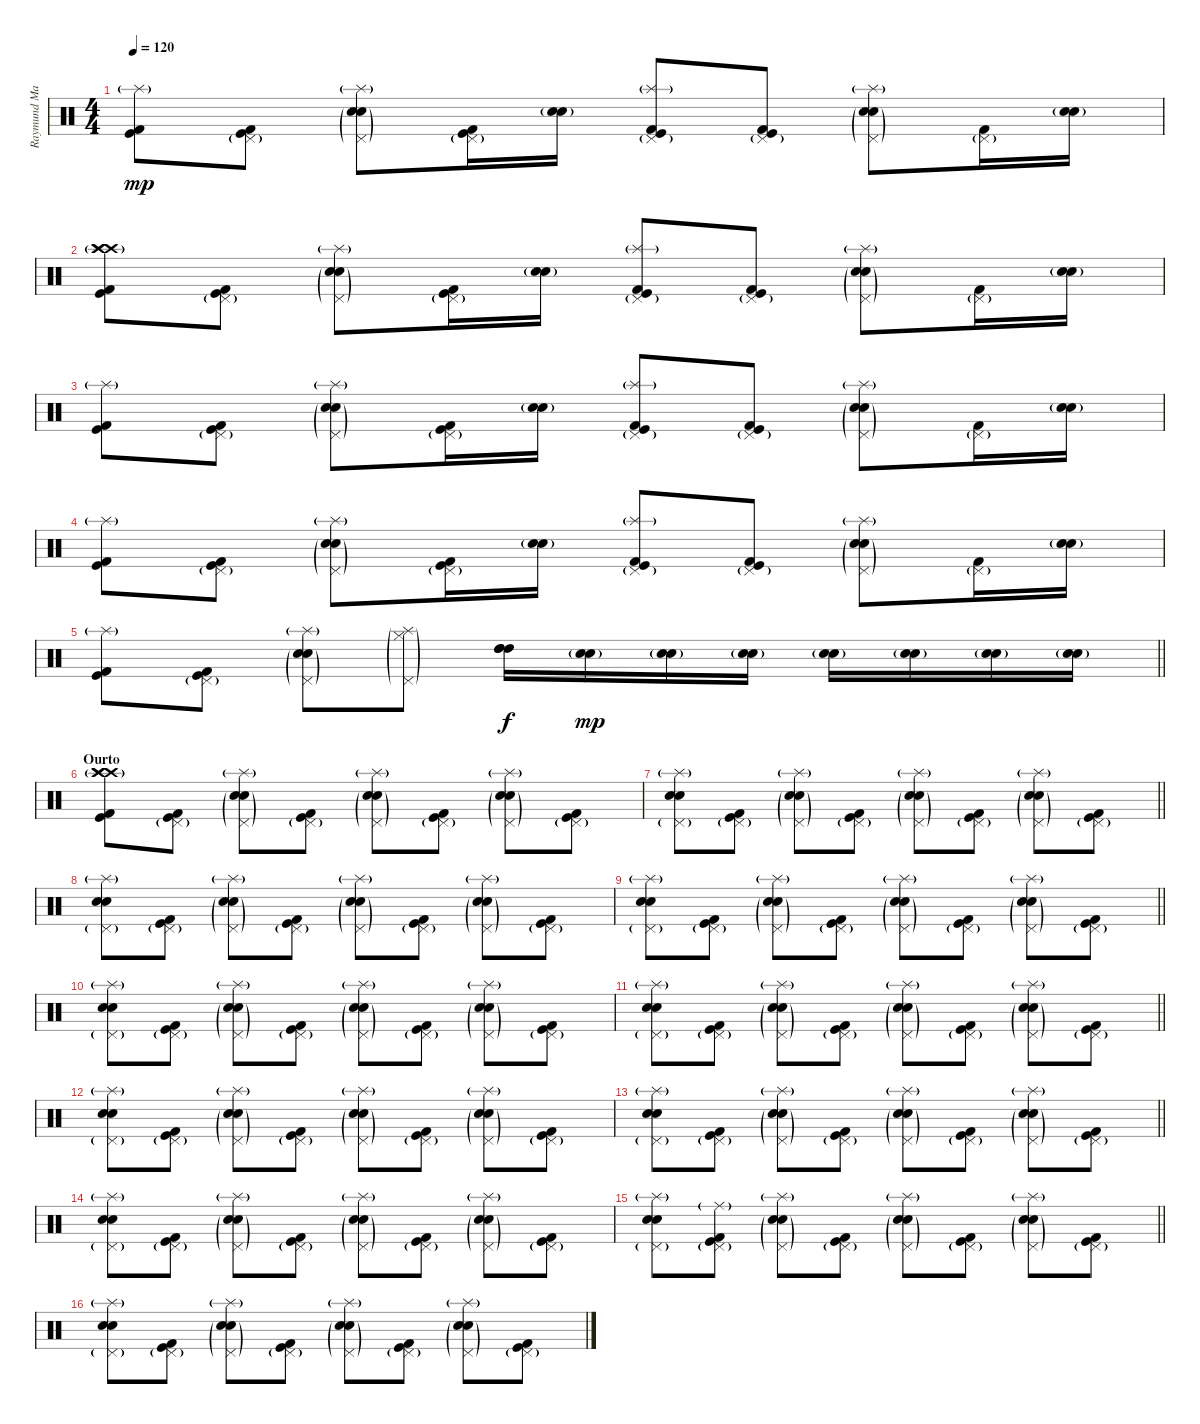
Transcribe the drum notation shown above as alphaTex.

\track ("Raymund Marasigan(Drums)" "Raymund Ma") {instrument percussion}
\staff {score}
\articulation defaults
\ts (4 4)
\tempo 120
\clef neutral
\ks c
("Kick (hit) 2" "Kick (hit)" "Splash (hit)"{g}).8{dy mp} ("Pedal Hi-Hat (hit)"{g} "Kick (hit) 2" "Kick (hit)").8 ("Pedal Hi-Hat (hit)"{g} "Electric Snare (hit)" "Snare (hit) 2"{g} "Splash (hit)"{g}).8 ("Pedal Hi-Hat (hit)"{g} "Kick (hit) 2" "Kick (hit)").16 ("Electric Snare (hit)" "Snare (hit) 2"{g}).16 ("Pedal Hi-Hat (hit)"{g} "Kick (hit) 2" "Kick (hit)" "Splash (hit)"{g}).8 ("Pedal Hi-Hat (hit)"{g} "Kick (hit) 2" "Kick (hit)").8 ("Pedal Hi-Hat (hit)"{g} "Electric Snare (hit)" "Snare (hit) 2"{g} "Splash (hit)"{g}).8 ("Pedal Hi-Hat (hit)"{g} "Kick (hit) 2").16 ("Electric Snare (hit)" "Snare (hit) 2"{g}).16 |
("Crash high (hit)"{g} "Crash high (hit)"{g} "Crash high (hit)"{g} "Kick (hit) 2" "Kick (hit)").8 ("Pedal Hi-Hat (hit)"{g} "Kick (hit) 2" "Kick (hit)").8 ("Pedal Hi-Hat (hit)"{g} "Electric Snare (hit)" "Snare (hit) 2"{g} "Splash (hit)"{g}).8 ("Pedal Hi-Hat (hit)"{g} "Kick (hit) 2" "Kick (hit)").16 ("Electric Snare (hit)" "Snare (hit) 2"{g}).16 ("Pedal Hi-Hat (hit)"{g} "Kick (hit) 2" "Kick (hit)" "Splash (hit)"{g}).8 ("Pedal Hi-Hat (hit)"{g} "Kick (hit) 2" "Kick (hit)").8 ("Pedal Hi-Hat (hit)"{g} "Electric Snare (hit)" "Snare (hit) 2"{g} "Splash (hit)"{g}).8 ("Pedal Hi-Hat (hit)"{g} "Kick (hit) 2").16 ("Electric Snare (hit)" "Snare (hit) 2"{g}).16 |
("Kick (hit) 2" "Kick (hit)" "Splash (hit)"{g}).8 ("Pedal Hi-Hat (hit)"{g} "Kick (hit) 2" "Kick (hit)").8 ("Pedal Hi-Hat (hit)"{g} "Electric Snare (hit)" "Snare (hit) 2"{g} "Splash (hit)"{g}).8 ("Pedal Hi-Hat (hit)"{g} "Kick (hit) 2" "Kick (hit)").16 ("Electric Snare (hit)" "Snare (hit) 2"{g}).16 ("Pedal Hi-Hat (hit)"{g} "Kick (hit) 2" "Kick (hit)" "Splash (hit)"{g}).8 ("Pedal Hi-Hat (hit)"{g} "Kick (hit) 2" "Kick (hit)").8 ("Pedal Hi-Hat (hit)"{g} "Electric Snare (hit)" "Snare (hit) 2"{g} "Splash (hit)"{g}).8 ("Pedal Hi-Hat (hit)"{g} "Kick (hit) 2").16 ("Electric Snare (hit)" "Snare (hit) 2"{g}).16 |
("Kick (hit) 2" "Kick (hit)" "Splash (hit)"{g}).8 ("Pedal Hi-Hat (hit)"{g} "Kick (hit) 2" "Kick (hit)").8 ("Pedal Hi-Hat (hit)"{g} "Electric Snare (hit)" "Snare (hit) 2"{g} "Splash (hit)"{g}).8 ("Pedal Hi-Hat (hit)"{g} "Kick (hit) 2" "Kick (hit)").16 ("Electric Snare (hit)" "Snare (hit) 2"{g}).16 ("Pedal Hi-Hat (hit)"{g} "Kick (hit) 2" "Kick (hit)" "Splash (hit)"{g}).8 ("Pedal Hi-Hat (hit)"{g} "Kick (hit) 2" "Kick (hit)").8 ("Pedal Hi-Hat (hit)"{g} "Electric Snare (hit)" "Snare (hit) 2"{g} "Splash (hit)"{g}).8 ("Pedal Hi-Hat (hit)"{g} "Kick (hit) 2").16 ("Electric Snare (hit)" "Snare (hit) 2"{g}).16 |
\barLineRight lightlight
("Kick (hit) 2" "Kick (hit)" "Splash (hit)"{g}).8 ("Pedal Hi-Hat (hit)"{g} "Kick (hit) 2" "Kick (hit)").8 ("Pedal Hi-Hat (hit)"{g} "Electric Snare (hit)" "Snare (hit) 2"{g} "Splash (hit)"{g}).8 ("Pedal Hi-Hat (hit)"{g} "Hi-Hat (closed)"{g} "Splash (hit)"{g}).8 ("High Tom (hit)" "High Tom (hit)" "High Tom (hit)").16{dy f} ("Electric Snare (hit)" "Snare (hit) 2"{g}).16{dy mp} ("Electric Snare (hit)" "Snare (hit) 2"{g}).16 ("Electric Snare (hit)" "Snare (hit) 2"{g}).16 ("Electric Snare (hit)" "Snare (hit) 2"{g}).16 ("Electric Snare (hit)" "Snare (hit) 2"{g}).16 ("Electric Snare (hit)" "Snare (hit) 2"{g}).16 ("Electric Snare (hit)" "Snare (hit) 2"{g}).16 |
\section ("" "Ourto")
("Crash high (hit)"{g} "Crash high (hit)"{g} "Crash high (hit)"{g} "Kick (hit) 2" "Kick (hit)").8 ("Pedal Hi-Hat (hit)"{g} "Kick (hit) 2" "Kick (hit)").8 ("Pedal Hi-Hat (hit)"{g} "Electric Snare (hit)" "Snare (hit) 2"{g} "Splash (hit)"{g}).8 ("Pedal Hi-Hat (hit)"{g} "Kick (hit) 2" "Kick (hit)").8 ("Pedal Hi-Hat (hit)"{g} "Electric Snare (hit)" "Snare (hit) 2"{g} "Splash (hit)"{g}).8 ("Pedal Hi-Hat (hit)"{g} "Kick (hit) 2" "Kick (hit)").8 ("Pedal Hi-Hat (hit)"{g} "Electric Snare (hit)" "Snare (hit) 2"{g} "Splash (hit)"{g}).8 ("Pedal Hi-Hat (hit)"{g} "Kick (hit) 2" "Kick (hit)").8 |
\barLineRight lightlight
("Pedal Hi-Hat (hit)"{g} "Electric Snare (hit)" "Snare (hit) 2" "Splash (hit)"{g}).8 ("Pedal Hi-Hat (hit)"{g} "Kick (hit) 2" "Kick (hit)").8 ("Pedal Hi-Hat (hit)"{g} "Electric Snare (hit)" "Snare (hit) 2"{g} "Splash (hit)"{g}).8 ("Pedal Hi-Hat (hit)"{g} "Kick (hit) 2" "Kick (hit)").8 ("Pedal Hi-Hat (hit)"{g} "Electric Snare (hit)" "Snare (hit) 2"{g} "Splash (hit)"{g}).8 ("Pedal Hi-Hat (hit)"{g} "Kick (hit) 2" "Kick (hit)").8 ("Pedal Hi-Hat (hit)"{g} "Electric Snare (hit)" "Snare (hit) 2"{g} "Splash (hit)"{g}).8 ("Pedal Hi-Hat (hit)"{g} "Kick (hit) 2" "Kick (hit)").8 |
("Pedal Hi-Hat (hit)"{g} "Electric Snare (hit)" "Snare (hit) 2" "Splash (hit)"{g}).8 ("Pedal Hi-Hat (hit)"{g} "Kick (hit) 2" "Kick (hit)").8 ("Pedal Hi-Hat (hit)"{g} "Electric Snare (hit)" "Snare (hit) 2"{g} "Splash (hit)"{g}).8 ("Pedal Hi-Hat (hit)"{g} "Kick (hit) 2" "Kick (hit)").8 ("Pedal Hi-Hat (hit)"{g} "Electric Snare (hit)" "Snare (hit) 2"{g} "Splash (hit)"{g}).8 ("Pedal Hi-Hat (hit)"{g} "Kick (hit) 2" "Kick (hit)").8 ("Pedal Hi-Hat (hit)"{g} "Electric Snare (hit)" "Snare (hit) 2"{g} "Splash (hit)"{g}).8 ("Pedal Hi-Hat (hit)"{g} "Kick (hit) 2" "Kick (hit)").8 |
\barLineRight lightlight
("Pedal Hi-Hat (hit)"{g} "Electric Snare (hit)" "Snare (hit) 2" "Splash (hit)"{g}).8 ("Pedal Hi-Hat (hit)"{g} "Kick (hit) 2" "Kick (hit)").8 ("Pedal Hi-Hat (hit)"{g} "Electric Snare (hit)" "Snare (hit) 2"{g} "Splash (hit)"{g}).8 ("Pedal Hi-Hat (hit)"{g} "Kick (hit) 2" "Kick (hit)").8 ("Pedal Hi-Hat (hit)"{g} "Electric Snare (hit)" "Snare (hit) 2"{g} "Splash (hit)"{g}).8 ("Pedal Hi-Hat (hit)"{g} "Kick (hit) 2" "Kick (hit)").8 ("Pedal Hi-Hat (hit)"{g} "Electric Snare (hit)" "Snare (hit) 2"{g} "Splash (hit)"{g}).8 ("Pedal Hi-Hat (hit)"{g} "Kick (hit) 2" "Kick (hit)").8 |
("Pedal Hi-Hat (hit)"{g} "Electric Snare (hit)" "Snare (hit) 2" "Splash (hit)"{g}).8 ("Pedal Hi-Hat (hit)"{g} "Kick (hit) 2" "Kick (hit)").8 ("Pedal Hi-Hat (hit)"{g} "Electric Snare (hit)" "Snare (hit) 2"{g} "Splash (hit)"{g}).8 ("Pedal Hi-Hat (hit)"{g} "Kick (hit) 2" "Kick (hit)").8 ("Pedal Hi-Hat (hit)"{g} "Electric Snare (hit)" "Snare (hit) 2"{g} "Splash (hit)"{g}).8 ("Pedal Hi-Hat (hit)"{g} "Kick (hit) 2" "Kick (hit)").8 ("Pedal Hi-Hat (hit)"{g} "Electric Snare (hit)" "Snare (hit) 2"{g} "Splash (hit)"{g}).8 ("Pedal Hi-Hat (hit)"{g} "Kick (hit) 2" "Kick (hit)").8 |
\barLineRight lightlight
("Pedal Hi-Hat (hit)"{g} "Electric Snare (hit)" "Snare (hit) 2" "Splash (hit)"{g}).8 ("Pedal Hi-Hat (hit)"{g} "Kick (hit) 2" "Kick (hit)").8 ("Pedal Hi-Hat (hit)"{g} "Electric Snare (hit)" "Snare (hit) 2"{g} "Splash (hit)"{g}).8 ("Pedal Hi-Hat (hit)"{g} "Kick (hit) 2" "Kick (hit)").8 ("Pedal Hi-Hat (hit)"{g} "Electric Snare (hit)" "Snare (hit) 2"{g} "Splash (hit)"{g}).8 ("Pedal Hi-Hat (hit)"{g} "Kick (hit) 2" "Kick (hit)").8 ("Pedal Hi-Hat (hit)"{g} "Electric Snare (hit)" "Snare (hit) 2"{g} "Splash (hit)"{g}).8 ("Pedal Hi-Hat (hit)"{g} "Kick (hit) 2" "Kick (hit)").8 |
("Pedal Hi-Hat (hit)"{g} "Electric Snare (hit)" "Snare (hit) 2" "Splash (hit)"{g}).8 ("Pedal Hi-Hat (hit)"{g} "Kick (hit) 2" "Kick (hit)").8 ("Pedal Hi-Hat (hit)"{g} "Electric Snare (hit)" "Snare (hit) 2"{g} "Splash (hit)"{g}).8 ("Pedal Hi-Hat (hit)"{g} "Kick (hit) 2" "Kick (hit)").8 ("Pedal Hi-Hat (hit)"{g} "Electric Snare (hit)" "Snare (hit) 2"{g} "Splash (hit)"{g}).8 ("Pedal Hi-Hat (hit)"{g} "Kick (hit) 2" "Kick (hit)").8 ("Pedal Hi-Hat (hit)"{g} "Electric Snare (hit)" "Snare (hit) 2"{g} "Splash (hit)"{g}).8 ("Pedal Hi-Hat (hit)"{g} "Kick (hit) 2" "Kick (hit)").8 |
\barLineRight lightlight
("Pedal Hi-Hat (hit)"{g} "Electric Snare (hit)" "Snare (hit) 2" "Splash (hit)"{g}).8 ("Pedal Hi-Hat (hit)"{g} "Kick (hit) 2" "Kick (hit)").8 ("Pedal Hi-Hat (hit)"{g} "Electric Snare (hit)" "Snare (hit) 2"{g} "Splash (hit)"{g}).8 ("Pedal Hi-Hat (hit)"{g} "Kick (hit) 2" "Kick (hit)").8 ("Pedal Hi-Hat (hit)"{g} "Electric Snare (hit)" "Snare (hit) 2"{g} "Splash (hit)"{g}).8 ("Pedal Hi-Hat (hit)"{g} "Kick (hit) 2" "Kick (hit)").8 ("Pedal Hi-Hat (hit)"{g} "Electric Snare (hit)" "Snare (hit) 2"{g} "Splash (hit)"{g}).8 ("Pedal Hi-Hat (hit)"{g} "Kick (hit) 2" "Kick (hit)").8 |
("Pedal Hi-Hat (hit)"{g} "Electric Snare (hit)" "Snare (hit) 2" "Splash (hit)"{g}).8 ("Pedal Hi-Hat (hit)"{g} "Kick (hit) 2" "Kick (hit)").8 ("Pedal Hi-Hat (hit)"{g} "Electric Snare (hit)" "Snare (hit) 2"{g} "Splash (hit)"{g}).8 ("Pedal Hi-Hat (hit)"{g} "Kick (hit) 2" "Kick (hit)").8 ("Pedal Hi-Hat (hit)"{g} "Electric Snare (hit)" "Snare (hit) 2"{g} "Splash (hit)"{g}).8 ("Pedal Hi-Hat (hit)"{g} "Kick (hit) 2" "Kick (hit)").8 ("Pedal Hi-Hat (hit)"{g} "Electric Snare (hit)" "Snare (hit) 2"{g} "Splash (hit)"{g}).8 ("Pedal Hi-Hat (hit)"{g} "Kick (hit) 2" "Kick (hit)").8 |
\barLineRight lightlight
("Pedal Hi-Hat (hit)"{g} "Electric Snare (hit)" "Snare (hit) 2" "Splash (hit)"{g}).8 ("Pedal Hi-Hat (hit)"{g} "Kick (hit) 2" "Kick (hit)" "Ride (middle)"{g}).8 ("Pedal Hi-Hat (hit)"{g} "Electric Snare (hit)" "Snare (hit) 2"{g} "Splash (hit)"{g}).8 ("Pedal Hi-Hat (hit)"{g} "Kick (hit) 2" "Kick (hit)").8 ("Pedal Hi-Hat (hit)"{g} "Electric Snare (hit)" "Snare (hit) 2"{g} "Splash (hit)"{g}).8 ("Pedal Hi-Hat (hit)"{g} "Kick (hit) 2" "Kick (hit)").8 ("Pedal Hi-Hat (hit)"{g} "Electric Snare (hit)" "Snare (hit) 2"{g} "Splash (hit)"{g}).8 ("Pedal Hi-Hat (hit)"{g} "Kick (hit) 2" "Kick (hit)").8 |
("Pedal Hi-Hat (hit)"{g} "Electric Snare (hit)" "Snare (hit) 2" "Splash (hit)"{g}).8 ("Pedal Hi-Hat (hit)"{g} "Kick (hit) 2" "Kick (hit)").8 ("Pedal Hi-Hat (hit)"{g} "Electric Snare (hit)" "Snare (hit) 2"{g} "Splash (hit)"{g}).8 ("Pedal Hi-Hat (hit)"{g} "Kick (hit) 2" "Kick (hit)").8 ("Pedal Hi-Hat (hit)"{g} "Electric Snare (hit)" "Snare (hit) 2"{g} "Splash (hit)"{g}).8 ("Pedal Hi-Hat (hit)"{g} "Kick (hit) 2" "Kick (hit)").8 ("Pedal Hi-Hat (hit)"{g} "Electric Snare (hit)" "Snare (hit) 2"{g} "Splash (hit)"{g}).8 ("Pedal Hi-Hat (hit)"{g} "Kick (hit) 2" "Kick (hit)").8
